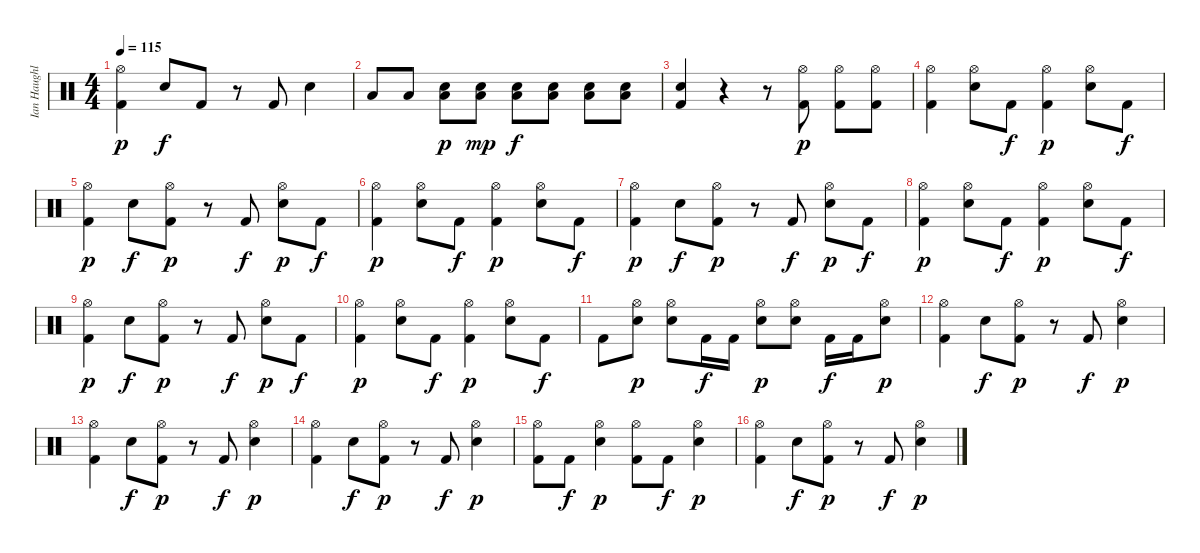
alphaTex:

\track ("Ian Haughland" "Ian Haughl") {instrument percussion}
\staff {score}
\articulation defaults
\ts (4 4)
\tempo 115
\clef neutral
\ks c
("Kick (hit) 2" "Hi-Hat (open)").4{dy p} "Snare (hit) 2".8{dy f} "Kick (hit) 2".8 r.8 "Kick (hit) 2".8 "Snare (hit) 2".4 |
"Low Floor Tom (hit)".8 "Low Floor Tom (hit)".8 ("Low Floor Tom (hit)" "Snare (hit) 2").8{dy p} ("Low Floor Tom (hit)" "Snare (hit) 2").8{dy mp} ("Low Floor Tom (hit)" "Snare (hit) 2").8{dy f} ("Low Floor Tom (hit)" "Snare (hit) 2").8 ("Low Floor Tom (hit)" "Snare (hit) 2").8 ("Low Floor Tom (hit)" "Snare (hit) 2").8 |
("Kick (hit) 2" "Snare (hit) 2").4 r.4 r.8 ("Kick (hit) 2" "Hi-Hat (open)").8{dy p} ("Kick (hit) 2" "Hi-Hat (open)").8 ("Kick (hit) 2" "Hi-Hat (open)").8 |
("Kick (hit) 2" "Hi-Hat (open)").4 ("Snare (hit) 2" "Hi-Hat (open)").8 "Kick (hit) 2".8{dy f} ("Kick (hit) 2" "Hi-Hat (open)").4{dy p} ("Snare (hit) 2" "Hi-Hat (open)").8 "Kick (hit) 2".8{dy f} |
("Kick (hit) 2" "Hi-Hat (open)").4{dy p} "Snare (hit) 2".8{dy f} ("Kick (hit) 2" "Hi-Hat (open)").8{dy p} r.8 "Kick (hit) 2".8{dy f} ("Snare (hit) 2" "Hi-Hat (open)").8{dy p} "Kick (hit) 2".8{dy f} |
("Kick (hit) 2" "Hi-Hat (open)").4{dy p} ("Snare (hit) 2" "Hi-Hat (open)").8 "Kick (hit) 2".8{dy f} ("Kick (hit) 2" "Hi-Hat (open)").4{dy p} ("Snare (hit) 2" "Hi-Hat (open)").8 "Kick (hit) 2".8{dy f} |
("Kick (hit) 2" "Hi-Hat (open)").4{dy p} "Snare (hit) 2".8{dy f} ("Kick (hit) 2" "Hi-Hat (open)").8{dy p} r.8 "Kick (hit) 2".8{dy f} ("Snare (hit) 2" "Hi-Hat (open)").8{dy p} "Kick (hit) 2".8{dy f} |
("Kick (hit) 2" "Hi-Hat (open)").4{dy p} ("Snare (hit) 2" "Hi-Hat (open)").8 "Kick (hit) 2".8{dy f} ("Kick (hit) 2" "Hi-Hat (open)").4{dy p} ("Snare (hit) 2" "Hi-Hat (open)").8 "Kick (hit) 2".8{dy f} |
("Kick (hit) 2" "Hi-Hat (open)").4{dy p} "Snare (hit) 2".8{dy f} ("Kick (hit) 2" "Hi-Hat (open)").8{dy p} r.8 "Kick (hit) 2".8{dy f} ("Snare (hit) 2" "Hi-Hat (open)").8{dy p} "Kick (hit) 2".8{dy f} |
("Kick (hit) 2" "Hi-Hat (open)").4{dy p} ("Snare (hit) 2" "Hi-Hat (open)").8 "Kick (hit) 2".8{dy f} ("Kick (hit) 2" "Hi-Hat (open)").4{dy p} ("Snare (hit) 2" "Hi-Hat (open)").8 "Kick (hit) 2".8{dy f} |
"Kick (hit) 2".8 ("Snare (hit) 2" "Hi-Hat (open)").8{dy p} ("Snare (hit) 2" "Hi-Hat (open)").8 "Kick (hit) 2".16{dy f} "Kick (hit) 2".16 ("Snare (hit) 2" "Hi-Hat (open)").8{dy p} ("Snare (hit) 2" "Hi-Hat (open)").8 "Kick (hit) 2".16{dy f} "Kick (hit) 2".16 ("Snare (hit) 2" "Hi-Hat (open)").8{dy p} |
("Kick (hit) 2" "Hi-Hat (open)").4 "Snare (hit) 2".8{dy f} ("Kick (hit) 2" "Hi-Hat (open)").8{dy p} r.8 "Kick (hit) 2".8{dy f} ("Snare (hit) 2" "Hi-Hat (open)").4{dy p} |
("Kick (hit) 2" "Hi-Hat (open)").4 "Snare (hit) 2".8{dy f} ("Kick (hit) 2" "Hi-Hat (open)").8{dy p} r.8 "Kick (hit) 2".8{dy f} ("Snare (hit) 2" "Hi-Hat (open)").4{dy p} |
("Kick (hit) 2" "Hi-Hat (open)").4 "Snare (hit) 2".8{dy f} ("Kick (hit) 2" "Hi-Hat (open)").8{dy p} r.8 "Kick (hit) 2".8{dy f} ("Snare (hit) 2" "Hi-Hat (open)").4{dy p} |
("Kick (hit) 2" "Hi-Hat (open)").8 "Kick (hit) 2".8{dy f} ("Snare (hit) 2" "Hi-Hat (open)").4{dy p} ("Kick (hit) 2" "Hi-Hat (open)").8 "Kick (hit) 2".8{dy f} ("Snare (hit) 2" "Hi-Hat (open)").4{dy p} |
("Kick (hit) 2" "Hi-Hat (open)").4 "Snare (hit) 2".8{dy f} ("Kick (hit) 2" "Hi-Hat (open)").8{dy p} r.8 "Kick (hit) 2".8{dy f} ("Snare (hit) 2" "Hi-Hat (open)").4{dy p}
